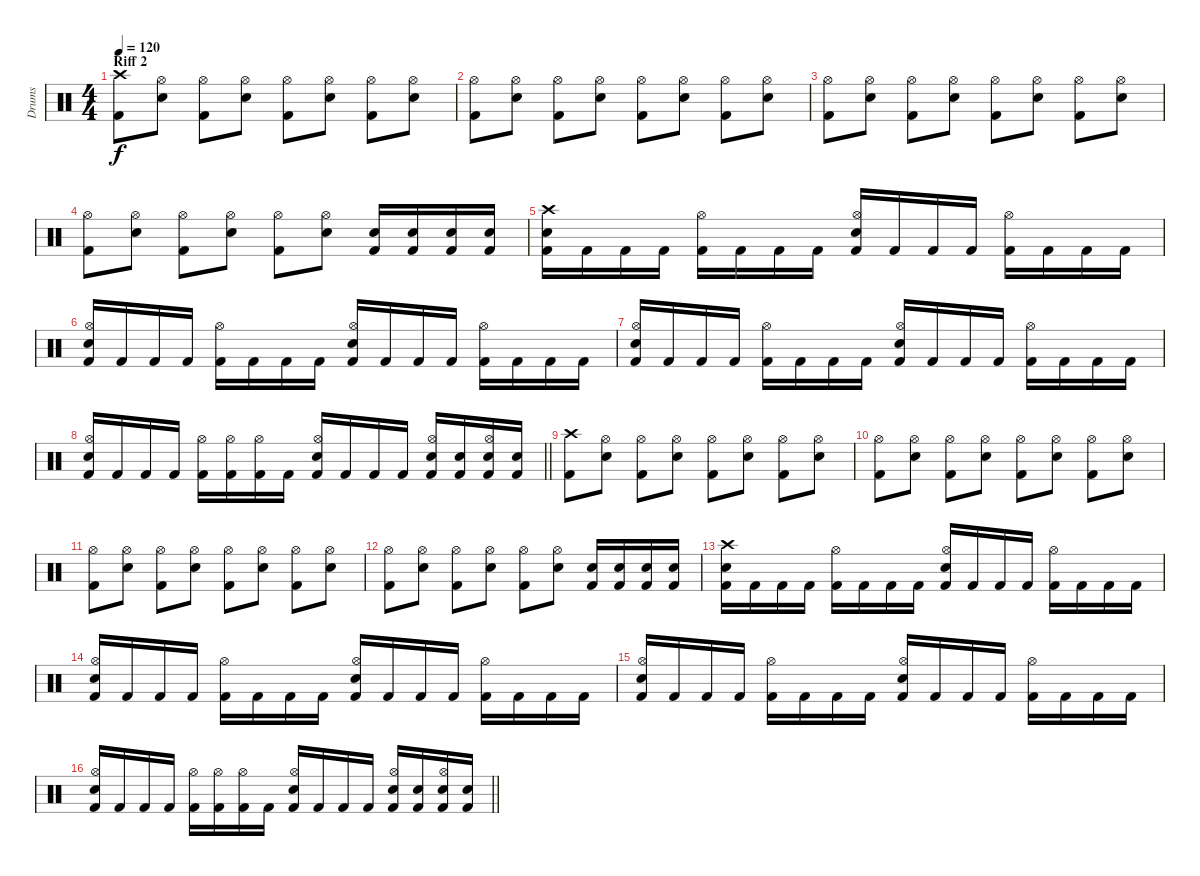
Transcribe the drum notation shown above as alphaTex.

\track ("Drums" "Drums") {instrument percussion}
\staff {score}
\articulation defaults
\ts (4 4)
\section ("" "Riff 2")
\tempo 120
\clef neutral
\ks c
("Crash high (hit)" "Kick (hit) 2").8{dy f} ("Hi-Hat (open)" "Electric Snare (hit)").8 ("Hi-Hat (open)" "Kick (hit) 2").8 ("Hi-Hat (open)" "Electric Snare (hit)").8 ("Hi-Hat (open)" "Kick (hit) 2").8 ("Hi-Hat (open)" "Electric Snare (hit)").8 ("Hi-Hat (open)" "Kick (hit) 2").8 ("Hi-Hat (open)" "Electric Snare (hit)").8 |
("Hi-Hat (open)" "Kick (hit) 2").8 ("Hi-Hat (open)" "Electric Snare (hit)").8 ("Hi-Hat (open)" "Kick (hit) 2").8 ("Hi-Hat (open)" "Electric Snare (hit)").8 ("Hi-Hat (open)" "Kick (hit) 2").8 ("Hi-Hat (open)" "Electric Snare (hit)").8 ("Hi-Hat (open)" "Kick (hit) 2").8 ("Hi-Hat (open)" "Electric Snare (hit)").8 |
("Hi-Hat (open)" "Kick (hit) 2").8 ("Hi-Hat (open)" "Electric Snare (hit)").8 ("Hi-Hat (open)" "Kick (hit) 2").8 ("Hi-Hat (open)" "Electric Snare (hit)").8 ("Hi-Hat (open)" "Kick (hit) 2").8 ("Hi-Hat (open)" "Electric Snare (hit)").8 ("Hi-Hat (open)" "Kick (hit) 2").8 ("Hi-Hat (open)" "Electric Snare (hit)").8 |
("Hi-Hat (open)" "Kick (hit) 2").8 ("Hi-Hat (open)" "Electric Snare (hit)").8 ("Hi-Hat (open)" "Kick (hit) 2").8 ("Hi-Hat (open)" "Electric Snare (hit)").8 ("Hi-Hat (open)" "Kick (hit) 2").8 ("Hi-Hat (open)" "Electric Snare (hit)").8 ("Electric Snare (hit)" "Kick (hit) 2").16 ("Electric Snare (hit)" "Kick (hit) 2").16 ("Electric Snare (hit)" "Kick (hit) 2").16 ("Electric Snare (hit)" "Kick (hit) 2").16 |
("Crash high (hit)" "Electric Snare (hit)" "Kick (hit) 2").16 "Kick (hit) 2".16 "Kick (hit) 2".16 "Kick (hit) 2".16 ("Hi-Hat (open)" "Kick (hit) 2").16 "Kick (hit) 2".16 "Kick (hit) 2".16 "Kick (hit) 2".16 ("Hi-Hat (open)" "Electric Snare (hit)" "Kick (hit) 2").16 "Kick (hit) 2".16 "Kick (hit) 2".16 "Kick (hit) 2".16 ("Hi-Hat (open)" "Kick (hit) 2").16 "Kick (hit) 2".16 "Kick (hit) 2".16 "Kick (hit) 2".16 |
("Hi-Hat (open)" "Electric Snare (hit)" "Kick (hit) 2").16 "Kick (hit) 2".16 "Kick (hit) 2".16 "Kick (hit) 2".16 ("Hi-Hat (open)" "Kick (hit) 2").16 "Kick (hit) 2".16 "Kick (hit) 2".16 "Kick (hit) 2".16 ("Hi-Hat (open)" "Electric Snare (hit)" "Kick (hit) 2").16 "Kick (hit) 2".16 "Kick (hit) 2".16 "Kick (hit) 2".16 ("Hi-Hat (open)" "Kick (hit) 2").16 "Kick (hit) 2".16 "Kick (hit) 2".16 "Kick (hit) 2".16 |
("Hi-Hat (open)" "Electric Snare (hit)" "Kick (hit) 2").16 "Kick (hit) 2".16 "Kick (hit) 2".16 "Kick (hit) 2".16 ("Hi-Hat (open)" "Kick (hit) 2").16 "Kick (hit) 2".16 "Kick (hit) 2".16 "Kick (hit) 2".16 ("Hi-Hat (open)" "Electric Snare (hit)" "Kick (hit) 2").16 "Kick (hit) 2".16 "Kick (hit) 2".16 "Kick (hit) 2".16 ("Hi-Hat (open)" "Kick (hit) 2").16 "Kick (hit) 2".16 "Kick (hit) 2".16 "Kick (hit) 2".16 |
\barLineRight lightlight
("Hi-Hat (open)" "Electric Snare (hit)" "Kick (hit) 2").16 "Kick (hit) 2".16 "Kick (hit) 2".16 "Kick (hit) 2".16 ("Hi-Hat (open)" "Kick (hit) 2").16 ("Hi-Hat (open)" "Kick (hit) 2").16 ("Hi-Hat (open)" "Kick (hit) 2").16 "Kick (hit) 2".16 ("Hi-Hat (open)" "Electric Snare (hit)" "Kick (hit) 2").16 "Kick (hit) 2".16 "Kick (hit) 2".16 "Kick (hit) 2".16 ("Hi-Hat (open)" "Electric Snare (hit)" "Kick (hit) 2").16 ("Electric Snare (hit)" "Kick (hit) 2").16 ("Hi-Hat (open)" "Electric Snare (hit)" "Kick (hit) 2").16 ("Electric Snare (hit)" "Kick (hit) 2").16 |
\section ("" "")
("Crash high (hit)" "Kick (hit) 2").8 ("Hi-Hat (open)" "Electric Snare (hit)").8 ("Hi-Hat (open)" "Kick (hit) 2").8 ("Hi-Hat (open)" "Electric Snare (hit)").8 ("Hi-Hat (open)" "Kick (hit) 2").8 ("Hi-Hat (open)" "Electric Snare (hit)").8 ("Hi-Hat (open)" "Kick (hit) 2").8 ("Hi-Hat (open)" "Electric Snare (hit)").8 |
("Hi-Hat (open)" "Kick (hit) 2").8 ("Hi-Hat (open)" "Electric Snare (hit)").8 ("Hi-Hat (open)" "Kick (hit) 2").8 ("Hi-Hat (open)" "Electric Snare (hit)").8 ("Hi-Hat (open)" "Kick (hit) 2").8 ("Hi-Hat (open)" "Electric Snare (hit)").8 ("Hi-Hat (open)" "Kick (hit) 2").8 ("Hi-Hat (open)" "Electric Snare (hit)").8 |
("Hi-Hat (open)" "Kick (hit) 2").8 ("Hi-Hat (open)" "Electric Snare (hit)").8 ("Hi-Hat (open)" "Kick (hit) 2").8 ("Hi-Hat (open)" "Electric Snare (hit)").8 ("Hi-Hat (open)" "Kick (hit) 2").8 ("Hi-Hat (open)" "Electric Snare (hit)").8 ("Hi-Hat (open)" "Kick (hit) 2").8 ("Hi-Hat (open)" "Electric Snare (hit)").8 |
("Hi-Hat (open)" "Kick (hit) 2").8 ("Hi-Hat (open)" "Electric Snare (hit)").8 ("Hi-Hat (open)" "Kick (hit) 2").8 ("Hi-Hat (open)" "Electric Snare (hit)").8 ("Hi-Hat (open)" "Kick (hit) 2").8 ("Hi-Hat (open)" "Electric Snare (hit)").8 ("Electric Snare (hit)" "Kick (hit) 2").16 ("Electric Snare (hit)" "Kick (hit) 2").16 ("Electric Snare (hit)" "Kick (hit) 2").16 ("Electric Snare (hit)" "Kick (hit) 2").16 |
("Crash high (hit)" "Electric Snare (hit)" "Kick (hit) 2").16 "Kick (hit) 2".16 "Kick (hit) 2".16 "Kick (hit) 2".16 ("Hi-Hat (open)" "Kick (hit) 2").16 "Kick (hit) 2".16 "Kick (hit) 2".16 "Kick (hit) 2".16 ("Hi-Hat (open)" "Electric Snare (hit)" "Kick (hit) 2").16 "Kick (hit) 2".16 "Kick (hit) 2".16 "Kick (hit) 2".16 ("Hi-Hat (open)" "Kick (hit) 2").16 "Kick (hit) 2".16 "Kick (hit) 2".16 "Kick (hit) 2".16 |
("Hi-Hat (open)" "Electric Snare (hit)" "Kick (hit) 2").16 "Kick (hit) 2".16 "Kick (hit) 2".16 "Kick (hit) 2".16 ("Hi-Hat (open)" "Kick (hit) 2").16 "Kick (hit) 2".16 "Kick (hit) 2".16 "Kick (hit) 2".16 ("Hi-Hat (open)" "Electric Snare (hit)" "Kick (hit) 2").16 "Kick (hit) 2".16 "Kick (hit) 2".16 "Kick (hit) 2".16 ("Hi-Hat (open)" "Kick (hit) 2").16 "Kick (hit) 2".16 "Kick (hit) 2".16 "Kick (hit) 2".16 |
("Hi-Hat (open)" "Electric Snare (hit)" "Kick (hit) 2").16 "Kick (hit) 2".16 "Kick (hit) 2".16 "Kick (hit) 2".16 ("Hi-Hat (open)" "Kick (hit) 2").16 "Kick (hit) 2".16 "Kick (hit) 2".16 "Kick (hit) 2".16 ("Hi-Hat (open)" "Electric Snare (hit)" "Kick (hit) 2").16 "Kick (hit) 2".16 "Kick (hit) 2".16 "Kick (hit) 2".16 ("Hi-Hat (open)" "Kick (hit) 2").16 "Kick (hit) 2".16 "Kick (hit) 2".16 "Kick (hit) 2".16 |
\barLineRight lightlight
("Hi-Hat (open)" "Electric Snare (hit)" "Kick (hit) 2").16 "Kick (hit) 2".16 "Kick (hit) 2".16 "Kick (hit) 2".16 ("Hi-Hat (open)" "Kick (hit) 2").16 ("Hi-Hat (open)" "Kick (hit) 2").16 ("Hi-Hat (open)" "Kick (hit) 2").16 "Kick (hit) 2".16 ("Hi-Hat (open)" "Electric Snare (hit)" "Kick (hit) 2").16 "Kick (hit) 2".16 "Kick (hit) 2".16 "Kick (hit) 2".16 ("Hi-Hat (open)" "Electric Snare (hit)" "Kick (hit) 2").16 ("Electric Snare (hit)" "Kick (hit) 2").16 ("Hi-Hat (open)" "Electric Snare (hit)" "Kick (hit) 2").16 ("Electric Snare (hit)" "Kick (hit) 2").16
